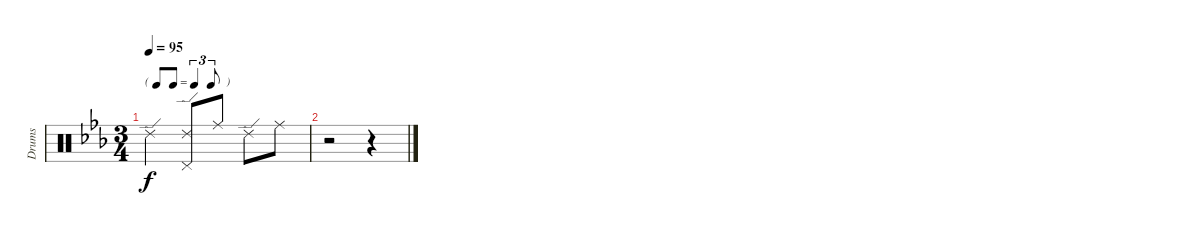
\track ("Drums" "Drums") {instrument percussion}
\staff {score}
\articulation defaults
\ts (3 4)
\tf triplet8th
\tempo 95
\clef neutral
\ks cminor "Ride (edge) 2".4{dy f}
("Ride (edge) 2" "Pedal Hi-Hat (hit)").8 "Ride (middle)".8 "Ride (edge) 2".8 "Ride (middle)".8 |
r.2 r.4
